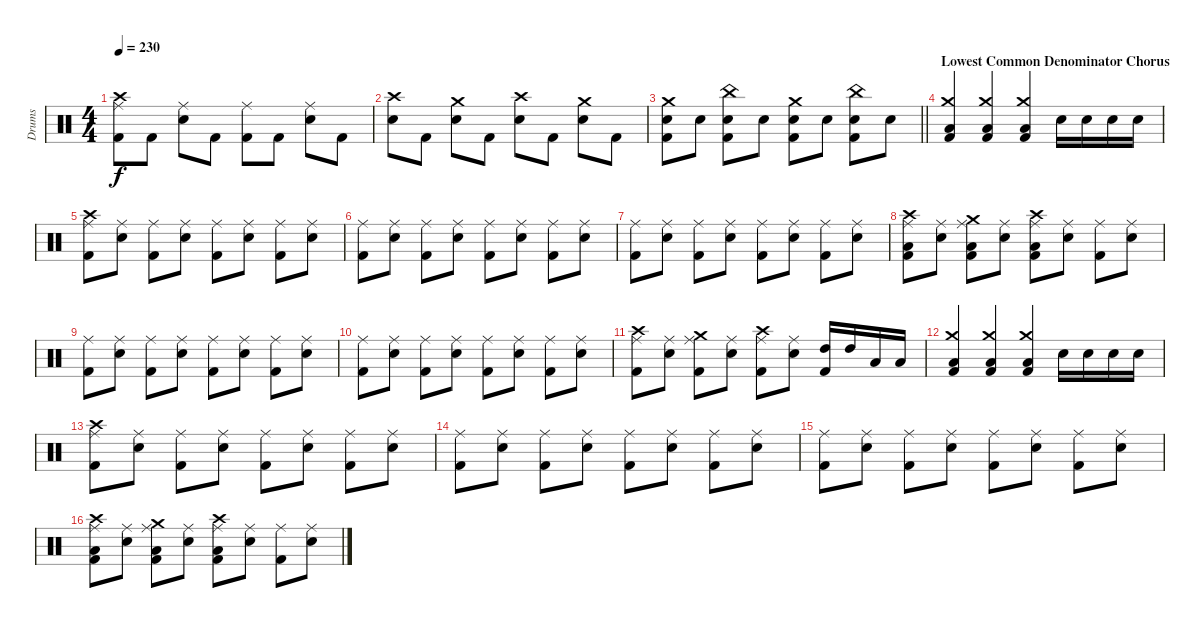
\track ("Drums" "Drums") {instrument percussion}
\staff {score}
\articulation defaults
\ts (4 4)
\tempo 230
\clef neutral
\ks c
("Crash high (hit)" "Ride (middle)" "Kick (hit) 2").8{dy f} "Kick (hit) 2".8 ("Ride (middle)" "Snare (hit) 2").8 "Kick (hit) 2".8 ("Ride (middle)" "Kick (hit) 2").8 "Kick (hit) 2".8 ("Ride (middle)" "Snare (hit) 2").8 "Kick (hit) 2".8 |
("Crash high (hit)" "Snare (hit) 2").8 "Kick (hit) 2".8 ("Crash medium (hit)" "Snare (hit) 2").8 "Kick (hit) 2".8 ("Crash high (hit)" "Snare (hit) 2").8 "Kick (hit) 2".8 ("Crash medium (hit)" "Snare (hit) 2").8 "Kick (hit) 2".8 |
\barLineRight lightlight
("Crash medium (hit)" "Snare (hit) 2" "Kick (hit) 2").8 "Snare (hit) 2".8 ("China (hit)" "Snare (hit) 2" "Kick (hit) 2").8 "Snare (hit) 2".8 ("Crash medium (hit)" "Snare (hit) 2" "Kick (hit) 2").8 "Snare (hit) 2".8 ("China (hit)" "Snare (hit) 2" "Kick (hit) 2").8 "Snare (hit) 2".8 |
\section ("" "Lowest Common Denominator Chorus")
("Crash medium (hit)" "Low Floor Tom (hit)" "Kick (hit) 2").4 ("Crash medium (hit)" "Low Floor Tom (hit)" "Kick (hit) 2").4 ("Crash medium (hit)" "Low Floor Tom (hit)" "Kick (hit) 2").4 "Snare (hit) 2".16 "Snare (hit) 2".16 "Snare (hit) 2".16 "Snare (hit) 2".16 |
("Crash high (hit)" "Ride (middle)" "Kick (hit) 2").8 ("Ride (middle)" "Snare (hit) 2").8 ("Ride (middle)" "Kick (hit) 2").8 ("Ride (middle)" "Snare (hit) 2").8 ("Ride (middle)" "Kick (hit) 2").8 ("Ride (middle)" "Snare (hit) 2").8 ("Ride (middle)" "Kick (hit) 2").8 ("Ride (middle)" "Snare (hit) 2").8 |
("Ride (middle)" "Kick (hit) 2").8 ("Ride (middle)" "Snare (hit) 2").8 ("Ride (middle)" "Kick (hit) 2").8 ("Ride (middle)" "Snare (hit) 2").8 ("Ride (middle)" "Kick (hit) 2").8 ("Ride (middle)" "Snare (hit) 2").8 ("Ride (middle)" "Kick (hit) 2").8 ("Ride (middle)" "Snare (hit) 2").8 |
("Ride (middle)" "Kick (hit) 2").8 ("Ride (middle)" "Snare (hit) 2").8 ("Ride (middle)" "Kick (hit) 2").8 ("Ride (middle)" "Snare (hit) 2").8 ("Ride (middle)" "Kick (hit) 2").8 ("Ride (middle)" "Snare (hit) 2").8 ("Ride (middle)" "Kick (hit) 2").8 ("Ride (middle)" "Snare (hit) 2").8 |
("Crash high (hit)" "Ride (middle)" "Low Floor Tom (hit)" "Kick (hit) 2").8 ("Ride (middle)" "Snare (hit) 2").8 ("Crash medium (hit)" "Ride (middle)" "Low Floor Tom (hit)" "Kick (hit) 2").8 ("Ride (middle)" "Snare (hit) 2").8 ("Crash high (hit)" "Ride (middle)" "Low Floor Tom (hit)" "Kick (hit) 2").8 ("Ride (middle)" "Snare (hit) 2").8 ("Ride (middle)" "Kick (hit) 2").8 ("Ride (middle)" "Snare (hit) 2").8 |
("Ride (middle)" "Kick (hit) 2").8 ("Ride (middle)" "Snare (hit) 2").8 ("Ride (middle)" "Kick (hit) 2").8 ("Ride (middle)" "Snare (hit) 2").8 ("Ride (middle)" "Kick (hit) 2").8 ("Ride (middle)" "Snare (hit) 2").8 ("Ride (middle)" "Kick (hit) 2").8 ("Ride (middle)" "Snare (hit) 2").8 |
("Ride (middle)" "Kick (hit) 2").8 ("Ride (middle)" "Snare (hit) 2").8 ("Ride (middle)" "Kick (hit) 2").8 ("Ride (middle)" "Snare (hit) 2").8 ("Ride (middle)" "Kick (hit) 2").8 ("Ride (middle)" "Snare (hit) 2").8 ("Ride (middle)" "Kick (hit) 2").8 ("Ride (middle)" "Snare (hit) 2").8 |
("Crash high (hit)" "Ride (middle)" "Kick (hit) 2").8 ("Ride (middle)" "Snare (hit) 2").8 ("Crash medium (hit)" "Ride (middle)" "Kick (hit) 2").8 ("Ride (middle)" "Snare (hit) 2").8 ("Crash high (hit)" "Ride (middle)" "Kick (hit) 2").8 ("Ride (middle)" "Snare (hit) 2").8 ("High Tom (hit)" "Kick (hit) 2").16 "High Tom (hit)".16 "Low Tom (hit)".16 "Low Tom (hit)".16 |
("Crash medium (hit)" "Low Floor Tom (hit)" "Kick (hit) 2").4 ("Crash medium (hit)" "Low Floor Tom (hit)" "Kick (hit) 2").4 ("Crash medium (hit)" "Low Floor Tom (hit)" "Kick (hit) 2").4 "Snare (hit) 2".16 "Snare (hit) 2".16 "Snare (hit) 2".16 "Snare (hit) 2".16 |
("Crash high (hit)" "Ride (middle)" "Kick (hit) 2").8 ("Ride (middle)" "Snare (hit) 2").8 ("Ride (middle)" "Kick (hit) 2").8 ("Ride (middle)" "Snare (hit) 2").8 ("Ride (middle)" "Kick (hit) 2").8 ("Ride (middle)" "Snare (hit) 2").8 ("Ride (middle)" "Kick (hit) 2").8 ("Ride (middle)" "Snare (hit) 2").8 |
("Ride (middle)" "Kick (hit) 2").8 ("Ride (middle)" "Snare (hit) 2").8 ("Ride (middle)" "Kick (hit) 2").8 ("Ride (middle)" "Snare (hit) 2").8 ("Ride (middle)" "Kick (hit) 2").8 ("Ride (middle)" "Snare (hit) 2").8 ("Ride (middle)" "Kick (hit) 2").8 ("Ride (middle)" "Snare (hit) 2").8 |
("Ride (middle)" "Kick (hit) 2").8 ("Ride (middle)" "Snare (hit) 2").8 ("Ride (middle)" "Kick (hit) 2").8 ("Ride (middle)" "Snare (hit) 2").8 ("Ride (middle)" "Kick (hit) 2").8 ("Ride (middle)" "Snare (hit) 2").8 ("Ride (middle)" "Kick (hit) 2").8 ("Ride (middle)" "Snare (hit) 2").8 |
("Crash high (hit)" "Ride (middle)" "Low Floor Tom (hit)" "Kick (hit) 2").8 ("Ride (middle)" "Snare (hit) 2").8 ("Crash medium (hit)" "Ride (middle)" "Low Floor Tom (hit)" "Kick (hit) 2").8 ("Ride (middle)" "Snare (hit) 2").8 ("Crash high (hit)" "Ride (middle)" "Low Floor Tom (hit)" "Kick (hit) 2").8 ("Ride (middle)" "Snare (hit) 2").8 ("Ride (middle)" "Kick (hit) 2").8 ("Ride (middle)" "Snare (hit) 2").8
